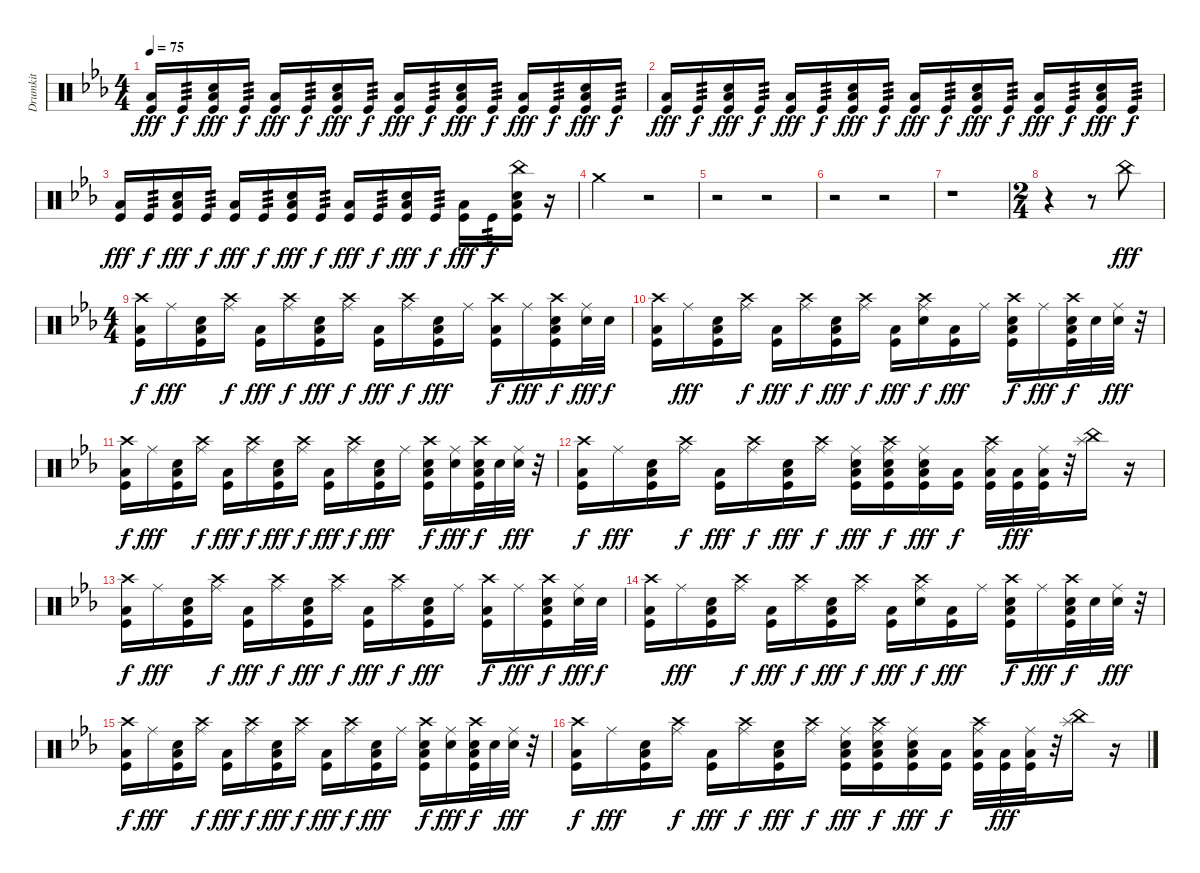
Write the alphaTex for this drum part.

\track ("Drumkit" "Drumkit") {instrument percussion}
\staff {score}
\articulation defaults
\ts (4 4)
\tempo 75
\clef neutral
\ks eb
("Low Floor Tom (hit)" "Kick (hit)").16{dy fff} "Kick (hit)".16{tp 3 dy f} ("Low Floor Tom (hit)" "Snare (hit) 2" "Kick (hit)").16{dy fff} "Kick (hit)".16{tp 3 dy f} ("Low Floor Tom (hit)" "Kick (hit)").16{dy fff} "Kick (hit)".16{tp 3 dy f} ("Low Floor Tom (hit)" "Snare (hit) 2" "Kick (hit)").16{dy fff} "Kick (hit)".16{tp 3 dy f} ("Low Floor Tom (hit)" "Kick (hit)").16{dy fff} "Kick (hit)".16{tp 3 dy f} ("Low Floor Tom (hit)" "Snare (hit) 2" "Kick (hit)").16{dy fff} "Kick (hit)".16{tp 3 dy f} ("Low Floor Tom (hit)" "Kick (hit)").16{dy fff} "Kick (hit)".16{tp 3 dy f} ("Low Floor Tom (hit)" "Snare (hit) 2" "Kick (hit)").16{dy fff} "Kick (hit)".16{tp 3 dy f} |
("Low Floor Tom (hit)" "Kick (hit)").16{dy fff} "Kick (hit)".16{tp 3 dy f} ("Low Floor Tom (hit)" "Snare (hit) 2" "Kick (hit)").16{dy fff} "Kick (hit)".16{tp 3 dy f} ("Low Floor Tom (hit)" "Kick (hit)").16{dy fff} "Kick (hit)".16{tp 3 dy f} ("Low Floor Tom (hit)" "Snare (hit) 2" "Kick (hit)").16{dy fff} "Kick (hit)".16{tp 3 dy f} ("Low Floor Tom (hit)" "Kick (hit)").16{dy fff} "Kick (hit)".16{tp 3 dy f} ("Low Floor Tom (hit)" "Snare (hit) 2" "Kick (hit)").16{dy fff} "Kick (hit)".16{tp 3 dy f} ("Low Floor Tom (hit)" "Kick (hit)").16{dy fff} "Kick (hit)".16{tp 3 dy f} ("Low Floor Tom (hit)" "Snare (hit) 2" "Kick (hit)").16{dy fff} "Kick (hit)".16{tp 3 dy f} |
("Low Floor Tom (hit)" "Kick (hit)").16{dy fff} "Kick (hit)".16{tp 3 dy f} ("Low Floor Tom (hit)" "Snare (hit) 2" "Kick (hit)").16{dy fff} "Kick (hit)".16{tp 3 dy f} ("Low Floor Tom (hit)" "Kick (hit)").16{dy fff} "Kick (hit)".16{tp 3 dy f} ("Low Floor Tom (hit)" "Snare (hit) 2" "Kick (hit)").16{dy fff} "Kick (hit)".16{tp 3 dy f} ("Low Floor Tom (hit)" "Kick (hit)").16{dy fff} "Kick (hit)".16{tp 3 dy f} ("Low Floor Tom (hit)" "Snare (hit) 2" "Kick (hit)").16{dy fff} "Kick (hit)".16{tp 3 dy f} ("Low Floor Tom (hit)" "Kick (hit)").16{dy fff} "Kick (hit)".16{tp 3 dy f} ("China (hit)" "Low Floor Tom (hit)" "Snare (hit) 2" "Kick (hit)").16 r.16 |
"Crash medium (hit)".2 r.2 |
r.2 r.2 |
r.2 r.2 |
r.1 |
\ts (2 4)
r.4 r.8 "China (hit)".8{dy fff} |
\ts (4 4)
("Crash high (hit)" "Low Floor Tom (hit)" "Kick (hit)").16{dy f} "Ride (middle)".16{dy fff} ("Low Floor Tom (hit)" "Snare (hit) 2" "Kick (hit)").16 ("Crash high (hit)" "Ride (middle)").16{dy f} ("Low Floor Tom (hit)" "Kick (hit)").16{dy fff} ("Crash high (hit)" "Ride (middle)").16{dy f} ("Low Floor Tom (hit)" "Snare (hit) 2" "Kick (hit)").16{dy fff} ("Crash high (hit)" "Ride (middle)").16{dy f} ("Low Floor Tom (hit)" "Kick (hit)").16{dy fff} ("Crash high (hit)" "Ride (middle)").16{dy f} ("Low Floor Tom (hit)" "Snare (hit) 2" "Kick (hit)").16{dy fff} "Ride (middle)".16 ("Crash high (hit)" "Low Floor Tom (hit)" "Kick (hit)").16{dy f} "Ride (middle)".16{dy fff} ("Crash high (hit)" "Low Floor Tom (hit)" "Snare (hit) 2" "Kick (hit)").16{dy f} ("Ride (middle)" "Snare (hit) 2").32{dy fff} "Snare (hit) 2".32{dy f} |
("Crash high (hit)" "Low Floor Tom (hit)" "Kick (hit)").16 "Ride (middle)".16{dy fff} ("Low Floor Tom (hit)" "Snare (hit) 2" "Kick (hit)").16 ("Crash high (hit)" "Ride (middle)").16{dy f} ("Low Floor Tom (hit)" "Kick (hit)").16{dy fff} ("Crash high (hit)" "Ride (middle)").16{dy f} ("Low Floor Tom (hit)" "Snare (hit) 2" "Kick (hit)").16{dy fff} ("Crash high (hit)" "Ride (middle)").16{dy f} ("Low Floor Tom (hit)" "Kick (hit)").16{dy fff} ("Crash high (hit)" "Ride (middle)" "Snare (hit) 2").16{dy f} ("Low Floor Tom (hit)" "Kick (hit)").16{dy fff} "Ride (middle)".16 ("Crash high (hit)" "Low Floor Tom (hit)" "Snare (hit) 2" "Kick (hit)").16{dy f} "Ride (middle)".16{dy fff} ("Crash high (hit)" "Low Floor Tom (hit)" "Snare (hit) 2" "Kick (hit)").32{dy f} "Snare (hit) 2".32 ("Ride (middle)" "Snare (hit) 2").32{dy fff} r.32 |
("Crash high (hit)" "Low Floor Tom (hit)" "Kick (hit)").16{dy f} "Ride (middle)".16{dy fff} ("Low Floor Tom (hit)" "Snare (hit) 2" "Kick (hit)").16 ("Crash high (hit)" "Ride (middle)").16{dy f} ("Low Floor Tom (hit)" "Kick (hit)").16{dy fff} ("Crash high (hit)" "Ride (middle)").16{dy f} ("Low Floor Tom (hit)" "Snare (hit) 2" "Kick (hit)").16{dy fff} ("Crash high (hit)" "Ride (middle)").16{dy f} ("Low Floor Tom (hit)" "Kick (hit)").16{dy fff} ("Crash high (hit)" "Ride (middle)").16{dy f} ("Low Floor Tom (hit)" "Snare (hit) 2" "Kick (hit)").16{dy fff} "Ride (middle)".16 ("Crash high (hit)" "Low Floor Tom (hit)" "Snare (hit) 2" "Kick (hit)").16{dy f} ("Ride (middle)" "Snare (hit) 2").16{dy fff} ("Crash high (hit)" "Low Floor Tom (hit)" "Snare (hit) 2" "Kick (hit)").32{dy f} "Snare (hit) 2".32 ("Ride (middle)" "Snare (hit) 2").32{dy fff} r.32 |
("Crash high (hit)" "Low Floor Tom (hit)" "Kick (hit)").16{dy f} "Ride (middle)".16{dy fff} ("Low Floor Tom (hit)" "Snare (hit) 2" "Kick (hit)").16 ("Crash high (hit)" "Ride (middle)").16{dy f} ("Low Floor Tom (hit)" "Kick (hit)").16{dy fff} ("Crash high (hit)" "Ride (middle)").16{dy f} ("Low Floor Tom (hit)" "Snare (hit) 2" "Kick (hit)").16{dy fff} ("Crash high (hit)" "Ride (middle)").16{dy f} ("Ride (middle)" "Low Floor Tom (hit)" "Snare (hit) 2" "Kick (hit)").16{dy fff} ("Crash high (hit)" "Ride (middle)" "Low Floor Tom (hit)" "Snare (hit) 2" "Kick (hit)").16{dy f} ("Ride (middle)" "Low Floor Tom (hit)" "Snare (hit) 2" "Kick (hit)").16{dy fff} ("Low Floor Tom (hit)" "Kick (hit)").16{dy f} ("Crash high (hit)" "Ride (middle)" "Low Floor Tom (hit)" "Kick (hit)").32 ("Low Floor Tom (hit)" "Kick (hit)").32{dy fff} ("Ride (middle)" "Low Floor Tom (hit)" "Kick (hit)").32 r.32 ("Splash (hit)" "China (hit)").16 r.16 |
("Crash high (hit)" "Low Floor Tom (hit)" "Kick (hit)").16{dy f} "Ride (middle)".16{dy fff} ("Low Floor Tom (hit)" "Snare (hit) 2" "Kick (hit)").16 ("Crash high (hit)" "Ride (middle)").16{dy f} ("Low Floor Tom (hit)" "Kick (hit)").16{dy fff} ("Crash high (hit)" "Ride (middle)").16{dy f} ("Low Floor Tom (hit)" "Snare (hit) 2" "Kick (hit)").16{dy fff} ("Crash high (hit)" "Ride (middle)").16{dy f} ("Low Floor Tom (hit)" "Kick (hit)").16{dy fff} ("Crash high (hit)" "Ride (middle)").16{dy f} ("Low Floor Tom (hit)" "Snare (hit) 2" "Kick (hit)").16{dy fff} "Ride (middle)".16 ("Crash high (hit)" "Low Floor Tom (hit)" "Kick (hit)").16{dy f} "Ride (middle)".16{dy fff} ("Crash high (hit)" "Low Floor Tom (hit)" "Snare (hit) 2" "Kick (hit)").16{dy f} ("Ride (middle)" "Snare (hit) 2").32{dy fff} "Snare (hit) 2".32{dy f} |
("Crash high (hit)" "Low Floor Tom (hit)" "Kick (hit)").16 "Ride (middle)".16{dy fff} ("Low Floor Tom (hit)" "Snare (hit) 2" "Kick (hit)").16 ("Crash high (hit)" "Ride (middle)").16{dy f} ("Low Floor Tom (hit)" "Kick (hit)").16{dy fff} ("Crash high (hit)" "Ride (middle)").16{dy f} ("Low Floor Tom (hit)" "Snare (hit) 2" "Kick (hit)").16{dy fff} ("Crash high (hit)" "Ride (middle)").16{dy f} ("Low Floor Tom (hit)" "Kick (hit)").16{dy fff} ("Crash high (hit)" "Ride (middle)" "Snare (hit) 2").16{dy f} ("Low Floor Tom (hit)" "Kick (hit)").16{dy fff} "Ride (middle)".16 ("Crash high (hit)" "Low Floor Tom (hit)" "Snare (hit) 2" "Kick (hit)").16{dy f} "Ride (middle)".16{dy fff} ("Crash high (hit)" "Low Floor Tom (hit)" "Snare (hit) 2" "Kick (hit)").32{dy f} "Snare (hit) 2".32 ("Ride (middle)" "Snare (hit) 2").32{dy fff} r.32 |
("Crash high (hit)" "Low Floor Tom (hit)" "Kick (hit)").16{dy f} "Ride (middle)".16{dy fff} ("Low Floor Tom (hit)" "Snare (hit) 2" "Kick (hit)").16 ("Crash high (hit)" "Ride (middle)").16{dy f} ("Low Floor Tom (hit)" "Kick (hit)").16{dy fff} ("Crash high (hit)" "Ride (middle)").16{dy f} ("Low Floor Tom (hit)" "Snare (hit) 2" "Kick (hit)").16{dy fff} ("Crash high (hit)" "Ride (middle)").16{dy f} ("Low Floor Tom (hit)" "Kick (hit)").16{dy fff} ("Crash high (hit)" "Ride (middle)").16{dy f} ("Low Floor Tom (hit)" "Snare (hit) 2" "Kick (hit)").16{dy fff} "Ride (middle)".16 ("Crash high (hit)" "Low Floor Tom (hit)" "Snare (hit) 2" "Kick (hit)").16{dy f} ("Ride (middle)" "Snare (hit) 2").16{dy fff} ("Crash high (hit)" "Low Floor Tom (hit)" "Snare (hit) 2" "Kick (hit)").32{dy f} "Snare (hit) 2".32 ("Ride (middle)" "Snare (hit) 2").32{dy fff} r.32 |
("Crash high (hit)" "Low Floor Tom (hit)" "Kick (hit)").16{dy f} "Ride (middle)".16{dy fff} ("Low Floor Tom (hit)" "Snare (hit) 2" "Kick (hit)").16 ("Crash high (hit)" "Ride (middle)").16{dy f} ("Low Floor Tom (hit)" "Kick (hit)").16{dy fff} ("Crash high (hit)" "Ride (middle)").16{dy f} ("Low Floor Tom (hit)" "Snare (hit) 2" "Kick (hit)").16{dy fff} ("Crash high (hit)" "Ride (middle)").16{dy f} ("Ride (middle)" "Low Floor Tom (hit)" "Snare (hit) 2" "Kick (hit)").16{dy fff} ("Crash high (hit)" "Ride (middle)" "Low Floor Tom (hit)" "Snare (hit) 2" "Kick (hit)").16{dy f} ("Ride (middle)" "Low Floor Tom (hit)" "Snare (hit) 2" "Kick (hit)").16{dy fff} ("Low Floor Tom (hit)" "Kick (hit)").16{dy f} ("Crash high (hit)" "Ride (middle)" "Low Floor Tom (hit)" "Kick (hit)").32 ("Low Floor Tom (hit)" "Kick (hit)").32{dy fff} ("Ride (middle)" "Low Floor Tom (hit)" "Kick (hit)").32 r.32 ("Splash (hit)" "China (hit)").16 r.16
